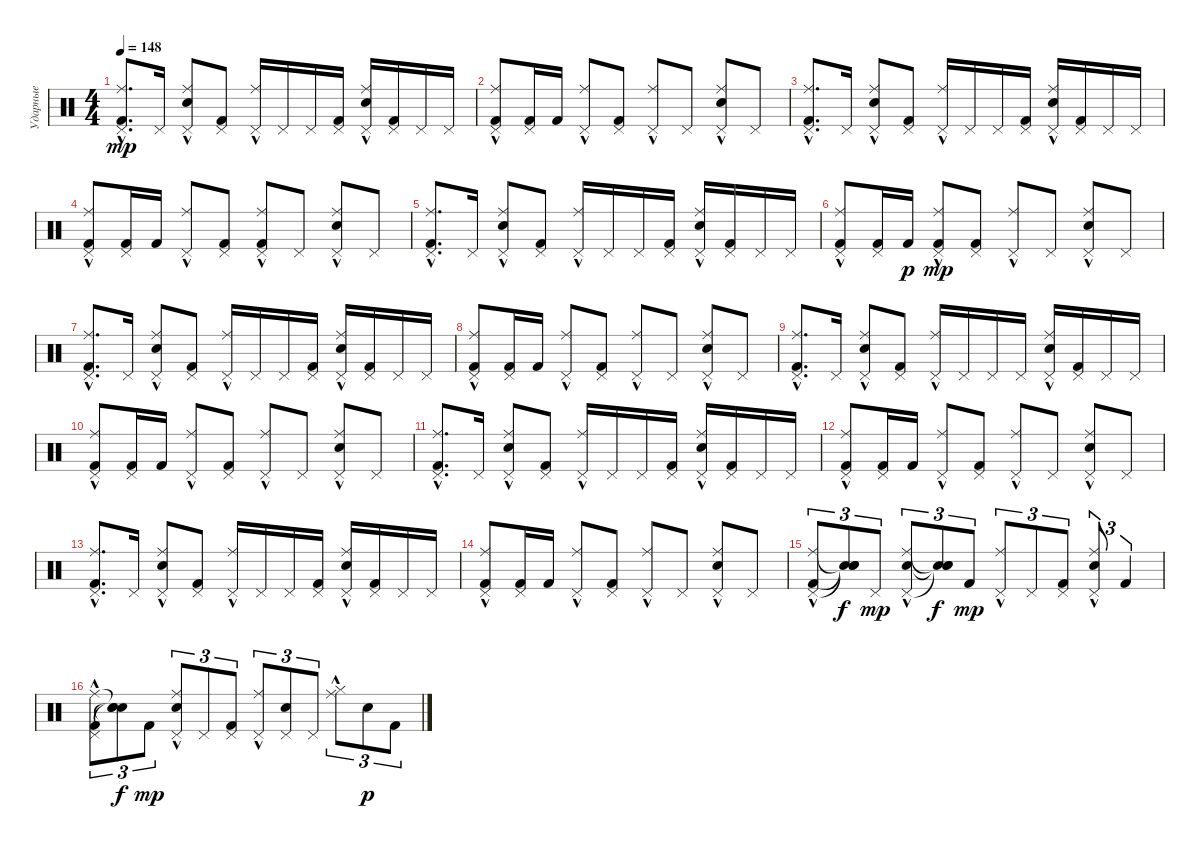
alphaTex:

\track ("Ударные" "Ударные") {instrument percussion}
\staff {score}
\articulation defaults
\ts (4 4)
\tempo 148
\clef neutral
\ks c
("Kick (hit) 2"{hac} "Pedal Hi-Hat (hit)"{hac} "Ride (middle)"{hac}).8{d dy mp} "Pedal Hi-Hat (hit)".16 ("Electric Snare (hit)" "Pedal Hi-Hat (hit)" "Ride (middle)"{hac}).8 ("Kick (hit) 2" "Pedal Hi-Hat (hit)").8 ("Pedal Hi-Hat (hit)" "Ride (middle)"{hac}).16 "Pedal Hi-Hat (hit)".16 "Pedal Hi-Hat (hit)".16 ("Kick (hit) 2" "Pedal Hi-Hat (hit)").16 ("Electric Snare (hit)" "Pedal Hi-Hat (hit)" "Ride (middle)"{hac}).16 ("Kick (hit) 2" "Pedal Hi-Hat (hit)").16 "Pedal Hi-Hat (hit)".16 "Pedal Hi-Hat (hit)".16 |
("Kick (hit) 2" "Pedal Hi-Hat (hit)" "Ride (middle)"{hac}).8 ("Kick (hit) 2" "Pedal Hi-Hat (hit)").16 "Kick (hit) 2".16 ("Pedal Hi-Hat (hit)" "Ride (middle)"{hac}).8 ("Kick (hit) 2" "Pedal Hi-Hat (hit)").8 ("Pedal Hi-Hat (hit)" "Ride (middle)"{hac}).8 "Pedal Hi-Hat (hit)".8 ("Electric Snare (hit)"{hac} "Pedal Hi-Hat (hit)" "Ride (middle)"{hac}).8 "Pedal Hi-Hat (hit)".8 |
("Kick (hit) 2"{hac} "Pedal Hi-Hat (hit)"{hac} "Ride (middle)"{hac}).8{d} "Pedal Hi-Hat (hit)".16 ("Electric Snare (hit)" "Pedal Hi-Hat (hit)" "Ride (middle)"{hac}).8 ("Kick (hit) 2" "Pedal Hi-Hat (hit)").8 ("Pedal Hi-Hat (hit)" "Ride (middle)"{hac}).16 "Pedal Hi-Hat (hit)".16 "Pedal Hi-Hat (hit)".16 ("Kick (hit) 2" "Pedal Hi-Hat (hit)").16 ("Electric Snare (hit)" "Pedal Hi-Hat (hit)" "Ride (middle)"{hac}).16 ("Kick (hit) 2" "Pedal Hi-Hat (hit)").16 "Pedal Hi-Hat (hit)".16 "Pedal Hi-Hat (hit)".16 |
("Kick (hit) 2" "Pedal Hi-Hat (hit)" "Ride (middle)"{hac}).8 ("Kick (hit) 2" "Pedal Hi-Hat (hit)").16 "Kick (hit) 2".16 ("Pedal Hi-Hat (hit)" "Ride (middle)"{hac}).8 ("Kick (hit) 2" "Pedal Hi-Hat (hit)").8 ("Kick (hit) 2"{hac} "Pedal Hi-Hat (hit)" "Ride (middle)"{hac}).8 "Pedal Hi-Hat (hit)".8 ("Electric Snare (hit)"{hac} "Pedal Hi-Hat (hit)" "Ride (middle)"{hac}).8 "Pedal Hi-Hat (hit)".8 |
("Kick (hit) 2"{hac} "Pedal Hi-Hat (hit)"{hac} "Ride (middle)"{hac}).8{d} "Pedal Hi-Hat (hit)".16 ("Electric Snare (hit)" "Pedal Hi-Hat (hit)" "Ride (middle)"{hac}).8 ("Kick (hit) 2" "Pedal Hi-Hat (hit)").8 ("Pedal Hi-Hat (hit)" "Ride (middle)"{hac}).16 "Pedal Hi-Hat (hit)".16 "Pedal Hi-Hat (hit)".16 ("Kick (hit) 2" "Pedal Hi-Hat (hit)").16 ("Electric Snare (hit)" "Pedal Hi-Hat (hit)" "Ride (middle)"{hac}).16 ("Kick (hit) 2" "Pedal Hi-Hat (hit)").16 "Pedal Hi-Hat (hit)".16 "Pedal Hi-Hat (hit)".16 |
("Kick (hit) 2" "Pedal Hi-Hat (hit)" "Ride (middle)"{hac}).8 ("Kick (hit) 2" "Pedal Hi-Hat (hit)").16 "Kick (hit) 2".16{dy p} ("Kick (hit) 2" "Pedal Hi-Hat (hit)" "Ride (middle)"{hac}).8{dy mp} ("Kick (hit) 2" "Pedal Hi-Hat (hit)").8 ("Pedal Hi-Hat (hit)" "Ride (middle)"{hac}).8 "Pedal Hi-Hat (hit)".8 ("Electric Snare (hit)"{hac} "Pedal Hi-Hat (hit)" "Ride (middle)"{hac}).8 "Pedal Hi-Hat (hit)".8 |
("Kick (hit) 2"{hac} "Pedal Hi-Hat (hit)"{hac} "Ride (middle)"{hac}).8{d} "Pedal Hi-Hat (hit)".16 ("Electric Snare (hit)" "Pedal Hi-Hat (hit)" "Ride (middle)"{hac}).8 ("Kick (hit) 2" "Pedal Hi-Hat (hit)").8 ("Pedal Hi-Hat (hit)" "Ride (middle)"{hac}).16 "Pedal Hi-Hat (hit)".16 "Pedal Hi-Hat (hit)".16 ("Kick (hit) 2" "Pedal Hi-Hat (hit)").16 ("Electric Snare (hit)" "Pedal Hi-Hat (hit)" "Ride (middle)"{hac}).16 ("Kick (hit) 2" "Pedal Hi-Hat (hit)").16 "Pedal Hi-Hat (hit)".16 "Pedal Hi-Hat (hit)".16 |
("Kick (hit) 2" "Pedal Hi-Hat (hit)" "Ride (middle)"{hac}).8 ("Kick (hit) 2" "Pedal Hi-Hat (hit)").16 "Kick (hit) 2".16 ("Pedal Hi-Hat (hit)" "Ride (middle)"{hac}).8 ("Kick (hit) 2" "Pedal Hi-Hat (hit)").8 ("Pedal Hi-Hat (hit)" "Ride (middle)"{hac}).8 "Pedal Hi-Hat (hit)".8 ("Electric Snare (hit)"{hac} "Pedal Hi-Hat (hit)" "Ride (middle)"{hac}).8 "Pedal Hi-Hat (hit)".8 |
("Kick (hit) 2"{hac} "Pedal Hi-Hat (hit)"{hac} "Ride (middle)"{hac}).8{d} "Pedal Hi-Hat (hit)".16 ("Electric Snare (hit)" "Pedal Hi-Hat (hit)" "Ride (middle)"{hac}).8 ("Kick (hit) 2" "Pedal Hi-Hat (hit)").8 ("Pedal Hi-Hat (hit)" "Ride (middle)"{hac}).16 "Pedal Hi-Hat (hit)".16 "Pedal Hi-Hat (hit)".16 "Pedal Hi-Hat (hit)".16 ("Electric Snare (hit)" "Pedal Hi-Hat (hit)" "Ride (middle)"{hac}).16 ("Kick (hit) 2" "Pedal Hi-Hat (hit)").16 "Pedal Hi-Hat (hit)".16 "Pedal Hi-Hat (hit)".16 |
("Kick (hit) 2" "Pedal Hi-Hat (hit)" "Ride (middle)"{hac}).8 ("Kick (hit) 2" "Pedal Hi-Hat (hit)").16 "Kick (hit) 2".16 ("Pedal Hi-Hat (hit)" "Ride (middle)"{hac}).8 ("Kick (hit) 2" "Pedal Hi-Hat (hit)").8 ("Pedal Hi-Hat (hit)" "Ride (middle)"{hac}).8 "Pedal Hi-Hat (hit)".8 ("Electric Snare (hit)"{hac} "Pedal Hi-Hat (hit)" "Ride (middle)"{hac}).8 "Pedal Hi-Hat (hit)".8 |
("Kick (hit) 2"{hac} "Pedal Hi-Hat (hit)"{hac} "Ride (middle)"{hac}).8{d} "Pedal Hi-Hat (hit)".16 ("Electric Snare (hit)" "Pedal Hi-Hat (hit)" "Ride (middle)"{hac}).8 ("Kick (hit) 2" "Pedal Hi-Hat (hit)").8 ("Pedal Hi-Hat (hit)" "Ride (middle)"{hac}).16 "Pedal Hi-Hat (hit)".16 "Pedal Hi-Hat (hit)".16 ("Kick (hit) 2" "Pedal Hi-Hat (hit)").16 ("Electric Snare (hit)" "Pedal Hi-Hat (hit)" "Ride (middle)"{hac}).16 ("Kick (hit) 2" "Pedal Hi-Hat (hit)").16 "Pedal Hi-Hat (hit)".16 "Pedal Hi-Hat (hit)".16 |
("Kick (hit) 2" "Pedal Hi-Hat (hit)" "Ride (middle)"{hac}).8 ("Kick (hit) 2" "Pedal Hi-Hat (hit)").16 "Kick (hit) 2".16 ("Pedal Hi-Hat (hit)" "Ride (middle)"{hac}).8 ("Kick (hit) 2" "Pedal Hi-Hat (hit)").8 ("Pedal Hi-Hat (hit)" "Ride (middle)"{hac}).8 "Pedal Hi-Hat (hit)".8 ("Electric Snare (hit)"{hac} "Pedal Hi-Hat (hit)" "Ride (middle)"{hac}).8 "Pedal Hi-Hat (hit)".8 |
("Kick (hit) 2"{hac} "Pedal Hi-Hat (hit)"{hac} "Ride (middle)"{hac}).8{d} "Pedal Hi-Hat (hit)".16 ("Electric Snare (hit)" "Pedal Hi-Hat (hit)" "Ride (middle)"{hac}).8 ("Kick (hit) 2" "Pedal Hi-Hat (hit)").8 ("Pedal Hi-Hat (hit)" "Ride (middle)"{hac}).16 "Pedal Hi-Hat (hit)".16 "Pedal Hi-Hat (hit)".16 ("Kick (hit) 2" "Pedal Hi-Hat (hit)").16 ("Electric Snare (hit)" "Pedal Hi-Hat (hit)" "Ride (middle)"{hac}).16 ("Kick (hit) 2" "Pedal Hi-Hat (hit)").16 "Pedal Hi-Hat (hit)".16 "Pedal Hi-Hat (hit)".16 |
("Kick (hit) 2" "Pedal Hi-Hat (hit)" "Ride (middle)"{hac}).8 ("Kick (hit) 2" "Pedal Hi-Hat (hit)").16 "Kick (hit) 2".16 ("Pedal Hi-Hat (hit)" "Ride (middle)"{hac}).8 ("Kick (hit) 2" "Pedal Hi-Hat (hit)").8 ("Pedal Hi-Hat (hit)" "Ride (middle)"{hac}).8 "Pedal Hi-Hat (hit)".8 ("Electric Snare (hit)"{hac} "Pedal Hi-Hat (hit)" "Ride (middle)"{hac}).8 "Pedal Hi-Hat (hit)".8 |
("Kick (hit) 2"{hac} "Pedal Hi-Hat (hit)" "Ride (middle)"{hac}).8{tu (3 2)} ("Snare (hit)"{t} "Snare (hit)"{t} "Snare (hit)"{t}).8{tu (3 2) dy f} "Pedal Hi-Hat (hit)".8{tu (3 2) dy mp} ("Electric Snare (hit)" "Pedal Hi-Hat (hit)"{hac} "Ride (middle)"{hac}).8{tu (3 2)} ("Snare (hit)"{t} "Snare (hit)"{t} "Snare (hit)"{t}).8{tu (3 2) dy f} "Kick (hit) 2".8{tu (3 2) dy mp} ("Pedal Hi-Hat (hit)" "Ride (middle)"{hac}).8{tu (3 2)} "Pedal Hi-Hat (hit)".8{tu (3 2)} ("Kick (hit) 2" "Pedal Hi-Hat (hit)").8{tu (3 2)} ("Electric Snare (hit)" "Pedal Hi-Hat (hit)"{hac} "Ride (middle)"{hac}).8{tu (3 2)} "Kick (hit) 2".4{tu (3 2)} |
("Kick (hit) 2" "Pedal Hi-Hat (hit)"{hac} "Ride (middle)"{hac}).8{tu (3 2)} ("Snare (hit)"{t} "Snare (hit)"{t} "Snare (hit)"{t}).8{tu (3 2) dy f} "Kick (hit) 2".8{tu (3 2) dy mp} ("Electric Snare (hit)" "Pedal Hi-Hat (hit)" "Ride (middle)"{hac}).8{tu (3 2)} "Pedal Hi-Hat (hit)".8{tu (3 2)} ("Kick (hit) 2" "Pedal Hi-Hat (hit)").8{tu (3 2)} ("Pedal Hi-Hat (hit)" "Ride (middle)"{hac}).8{tu (3 2)} ("Electric Snare (hit)" "Pedal Hi-Hat (hit)").8{tu (3 2)} "Pedal Hi-Hat (hit)".8{tu (3 2)} ("Hi-Hat (closed)"{hac} "Ride (middle)"{hac}).8{tu (3 2)} "Electric Snare (hit)".8{tu (3 2) dy p} "Kick (hit) 2".8{tu (3 2)}
